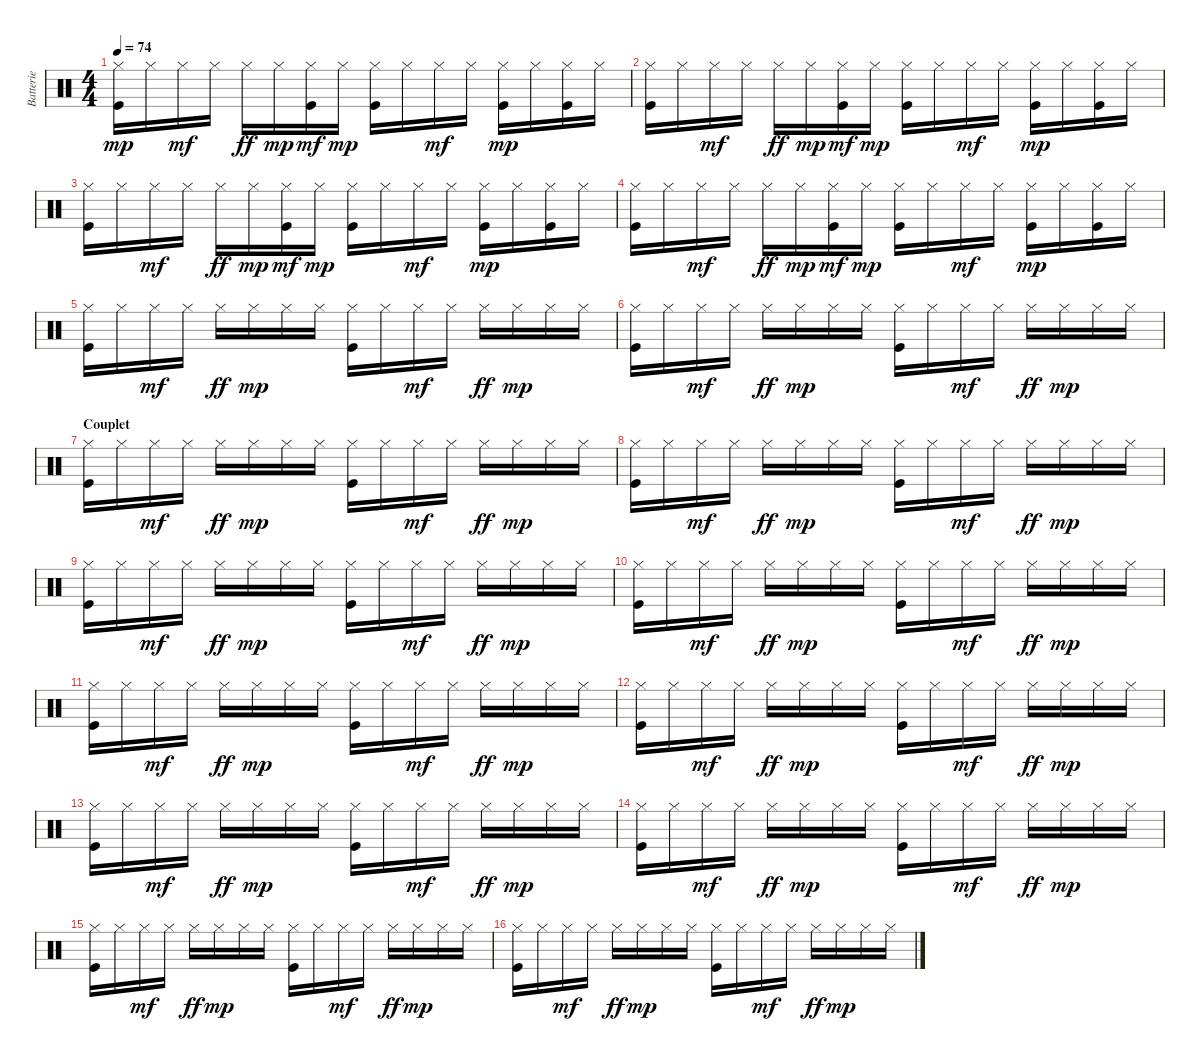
\track ("Batterie" "Batterie") {instrument percussion}
\staff {score}
\articulation defaults
\ts (4 4)
\tempo 74
\clef neutral
\ks c
("Hi-Hat (closed)" "Kick (hit)").16{dy mp} "Hi-Hat (closed)".16 "Hi-Hat (closed)".16{dy mf} "Hi-Hat (closed)".16 "Hi-Hat (closed)".16{dy ff} "Hi-Hat (closed)".16{dy mp} ("Hi-Hat (closed)" "Kick (hit)").16{dy mf} "Hi-Hat (closed)".16{dy mp} ("Hi-Hat (closed)" "Kick (hit)").16 "Hi-Hat (closed)".16 "Hi-Hat (closed)".16{dy mf} "Hi-Hat (closed)".16 ("Hi-Hat (closed)" "Kick (hit)").16{dy mp} "Hi-Hat (closed)".16 ("Hi-Hat (closed)" "Kick (hit)").16 "Hi-Hat (closed)".16 |
("Hi-Hat (closed)" "Kick (hit)").16 "Hi-Hat (closed)".16 "Hi-Hat (closed)".16{dy mf} "Hi-Hat (closed)".16 "Hi-Hat (closed)".16{dy ff} "Hi-Hat (closed)".16{dy mp} ("Hi-Hat (closed)" "Kick (hit)").16{dy mf} "Hi-Hat (closed)".16{dy mp} ("Hi-Hat (closed)" "Kick (hit)").16 "Hi-Hat (closed)".16 "Hi-Hat (closed)".16{dy mf} "Hi-Hat (closed)".16 ("Hi-Hat (closed)" "Kick (hit)").16{dy mp} "Hi-Hat (closed)".16 ("Hi-Hat (closed)" "Kick (hit)").16 "Hi-Hat (closed)".16 |
("Hi-Hat (closed)" "Kick (hit)").16 "Hi-Hat (closed)".16 "Hi-Hat (closed)".16{dy mf} "Hi-Hat (closed)".16 "Hi-Hat (closed)".16{dy ff} "Hi-Hat (closed)".16{dy mp} ("Hi-Hat (closed)" "Kick (hit)").16{dy mf} "Hi-Hat (closed)".16{dy mp} ("Hi-Hat (closed)" "Kick (hit)").16 "Hi-Hat (closed)".16 "Hi-Hat (closed)".16{dy mf} "Hi-Hat (closed)".16 ("Hi-Hat (closed)" "Kick (hit)").16{dy mp} "Hi-Hat (closed)".16 ("Hi-Hat (closed)" "Kick (hit)").16 "Hi-Hat (closed)".16 |
("Hi-Hat (closed)" "Kick (hit)").16 "Hi-Hat (closed)".16 "Hi-Hat (closed)".16{dy mf} "Hi-Hat (closed)".16 "Hi-Hat (closed)".16{dy ff} "Hi-Hat (closed)".16{dy mp} ("Hi-Hat (closed)" "Kick (hit)").16{dy mf} "Hi-Hat (closed)".16{dy mp} ("Hi-Hat (closed)" "Kick (hit)").16 "Hi-Hat (closed)".16 "Hi-Hat (closed)".16{dy mf} "Hi-Hat (closed)".16 ("Hi-Hat (closed)" "Kick (hit)").16{dy mp} "Hi-Hat (closed)".16 ("Hi-Hat (closed)" "Kick (hit)").16 "Hi-Hat (closed)".16 |
("Hi-Hat (closed)" "Kick (hit)").16 "Hi-Hat (closed)".16 "Hi-Hat (closed)".16{dy mf} "Hi-Hat (closed)".16 "Hi-Hat (closed)".16{dy ff} "Hi-Hat (closed)".16{dy mp} "Hi-Hat (closed)".16 "Hi-Hat (closed)".16 ("Hi-Hat (closed)" "Kick (hit)").16 "Hi-Hat (closed)".16 "Hi-Hat (closed)".16{dy mf} "Hi-Hat (closed)".16 "Hi-Hat (closed)".16{dy ff} "Hi-Hat (closed)".16{dy mp} "Hi-Hat (closed)".16 "Hi-Hat (closed)".16 |
("Hi-Hat (closed)" "Kick (hit)").16 "Hi-Hat (closed)".16 "Hi-Hat (closed)".16{dy mf} "Hi-Hat (closed)".16 "Hi-Hat (closed)".16{dy ff} "Hi-Hat (closed)".16{dy mp} "Hi-Hat (closed)".16 "Hi-Hat (closed)".16 ("Hi-Hat (closed)" "Kick (hit)").16 "Hi-Hat (closed)".16 "Hi-Hat (closed)".16{dy mf} "Hi-Hat (closed)".16 "Hi-Hat (closed)".16{dy ff} "Hi-Hat (closed)".16{dy mp} "Hi-Hat (closed)".16 "Hi-Hat (closed)".16 |
\section ("" "Couplet")
("Hi-Hat (closed)" "Kick (hit)").16 "Hi-Hat (closed)".16 "Hi-Hat (closed)".16{dy mf} "Hi-Hat (closed)".16 "Hi-Hat (closed)".16{dy ff} "Hi-Hat (closed)".16{dy mp} "Hi-Hat (closed)".16 "Hi-Hat (closed)".16 ("Hi-Hat (closed)" "Kick (hit)").16 "Hi-Hat (closed)".16 "Hi-Hat (closed)".16{dy mf} "Hi-Hat (closed)".16 "Hi-Hat (closed)".16{dy ff} "Hi-Hat (closed)".16{dy mp} "Hi-Hat (closed)".16 "Hi-Hat (closed)".16 |
("Hi-Hat (closed)" "Kick (hit)").16 "Hi-Hat (closed)".16 "Hi-Hat (closed)".16{dy mf} "Hi-Hat (closed)".16 "Hi-Hat (closed)".16{dy ff} "Hi-Hat (closed)".16{dy mp} "Hi-Hat (closed)".16 "Hi-Hat (closed)".16 ("Hi-Hat (closed)" "Kick (hit)").16 "Hi-Hat (closed)".16 "Hi-Hat (closed)".16{dy mf} "Hi-Hat (closed)".16 "Hi-Hat (closed)".16{dy ff} "Hi-Hat (closed)".16{dy mp} "Hi-Hat (closed)".16 "Hi-Hat (closed)".16 |
("Hi-Hat (closed)" "Kick (hit)").16 "Hi-Hat (closed)".16 "Hi-Hat (closed)".16{dy mf} "Hi-Hat (closed)".16 "Hi-Hat (closed)".16{dy ff} "Hi-Hat (closed)".16{dy mp} "Hi-Hat (closed)".16 "Hi-Hat (closed)".16 ("Hi-Hat (closed)" "Kick (hit)").16 "Hi-Hat (closed)".16 "Hi-Hat (closed)".16{dy mf} "Hi-Hat (closed)".16 "Hi-Hat (closed)".16{dy ff} "Hi-Hat (closed)".16{dy mp} "Hi-Hat (closed)".16 "Hi-Hat (closed)".16 |
("Hi-Hat (closed)" "Kick (hit)").16 "Hi-Hat (closed)".16 "Hi-Hat (closed)".16{dy mf} "Hi-Hat (closed)".16 "Hi-Hat (closed)".16{dy ff} "Hi-Hat (closed)".16{dy mp} "Hi-Hat (closed)".16 "Hi-Hat (closed)".16 ("Hi-Hat (closed)" "Kick (hit)").16 "Hi-Hat (closed)".16 "Hi-Hat (closed)".16{dy mf} "Hi-Hat (closed)".16 "Hi-Hat (closed)".16{dy ff} "Hi-Hat (closed)".16{dy mp} "Hi-Hat (closed)".16 "Hi-Hat (closed)".16 |
("Hi-Hat (closed)" "Kick (hit)").16 "Hi-Hat (closed)".16 "Hi-Hat (closed)".16{dy mf} "Hi-Hat (closed)".16 "Hi-Hat (closed)".16{dy ff} "Hi-Hat (closed)".16{dy mp} "Hi-Hat (closed)".16 "Hi-Hat (closed)".16 ("Hi-Hat (closed)" "Kick (hit)").16 "Hi-Hat (closed)".16 "Hi-Hat (closed)".16{dy mf} "Hi-Hat (closed)".16 "Hi-Hat (closed)".16{dy ff} "Hi-Hat (closed)".16{dy mp} "Hi-Hat (closed)".16 "Hi-Hat (closed)".16 |
("Hi-Hat (closed)" "Kick (hit)").16 "Hi-Hat (closed)".16 "Hi-Hat (closed)".16{dy mf} "Hi-Hat (closed)".16 "Hi-Hat (closed)".16{dy ff} "Hi-Hat (closed)".16{dy mp} "Hi-Hat (closed)".16 "Hi-Hat (closed)".16 ("Hi-Hat (closed)" "Kick (hit)").16 "Hi-Hat (closed)".16 "Hi-Hat (closed)".16{dy mf} "Hi-Hat (closed)".16 "Hi-Hat (closed)".16{dy ff} "Hi-Hat (closed)".16{dy mp} "Hi-Hat (closed)".16 "Hi-Hat (closed)".16 |
("Hi-Hat (closed)" "Kick (hit)").16 "Hi-Hat (closed)".16 "Hi-Hat (closed)".16{dy mf} "Hi-Hat (closed)".16 "Hi-Hat (closed)".16{dy ff} "Hi-Hat (closed)".16{dy mp} "Hi-Hat (closed)".16 "Hi-Hat (closed)".16 ("Hi-Hat (closed)" "Kick (hit)").16 "Hi-Hat (closed)".16 "Hi-Hat (closed)".16{dy mf} "Hi-Hat (closed)".16 "Hi-Hat (closed)".16{dy ff} "Hi-Hat (closed)".16{dy mp} "Hi-Hat (closed)".16 "Hi-Hat (closed)".16 |
("Hi-Hat (closed)" "Kick (hit)").16 "Hi-Hat (closed)".16 "Hi-Hat (closed)".16{dy mf} "Hi-Hat (closed)".16 "Hi-Hat (closed)".16{dy ff} "Hi-Hat (closed)".16{dy mp} "Hi-Hat (closed)".16 "Hi-Hat (closed)".16 ("Hi-Hat (closed)" "Kick (hit)").16 "Hi-Hat (closed)".16 "Hi-Hat (closed)".16{dy mf} "Hi-Hat (closed)".16 "Hi-Hat (closed)".16{dy ff} "Hi-Hat (closed)".16{dy mp} "Hi-Hat (closed)".16 "Hi-Hat (closed)".16 |
("Hi-Hat (closed)" "Kick (hit)").16 "Hi-Hat (closed)".16 "Hi-Hat (closed)".16{dy mf} "Hi-Hat (closed)".16 "Hi-Hat (closed)".16{dy ff} "Hi-Hat (closed)".16{dy mp} "Hi-Hat (closed)".16 "Hi-Hat (closed)".16 ("Hi-Hat (closed)" "Kick (hit)").16 "Hi-Hat (closed)".16 "Hi-Hat (closed)".16{dy mf} "Hi-Hat (closed)".16 "Hi-Hat (closed)".16{dy ff} "Hi-Hat (closed)".16{dy mp} "Hi-Hat (closed)".16 "Hi-Hat (closed)".16 |
("Hi-Hat (closed)" "Kick (hit)").16 "Hi-Hat (closed)".16 "Hi-Hat (closed)".16{dy mf} "Hi-Hat (closed)".16 "Hi-Hat (closed)".16{dy ff} "Hi-Hat (closed)".16{dy mp} "Hi-Hat (closed)".16 "Hi-Hat (closed)".16 ("Hi-Hat (closed)" "Kick (hit)").16 "Hi-Hat (closed)".16 "Hi-Hat (closed)".16{dy mf} "Hi-Hat (closed)".16 "Hi-Hat (closed)".16{dy ff} "Hi-Hat (closed)".16{dy mp} "Hi-Hat (closed)".16 "Hi-Hat (closed)".16
